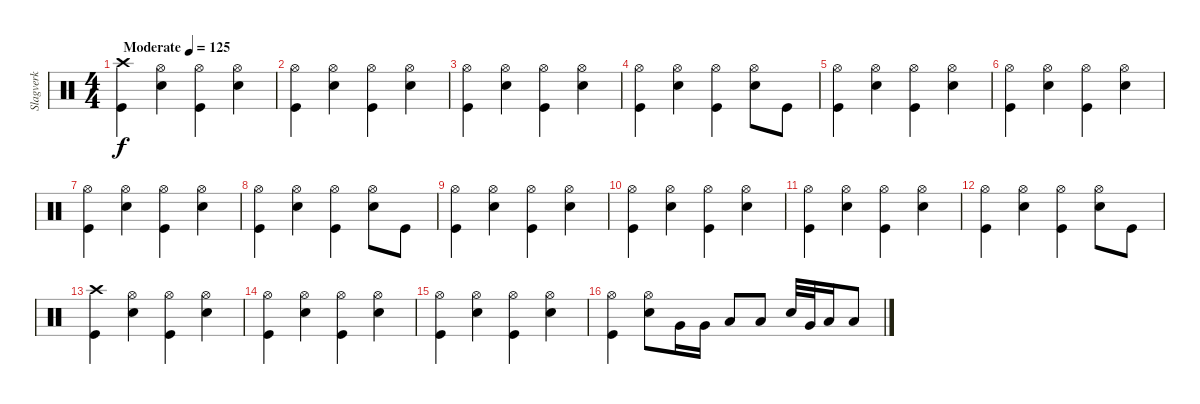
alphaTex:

\track ("Slagverk" "Slagverk") {instrument percussion}
\staff {score}
\articulation defaults
\ts (4 4)
\tempo (125 "Moderate")
\clef neutral
\ks c
("Crash high (hit)" "Kick (hit)").4{dy f} ("Hi-Hat (open)" "Snare (hit) 2").4 ("Hi-Hat (open)" "Kick (hit)").4 ("Hi-Hat (open)" "Snare (hit) 2").4 |
("Hi-Hat (open)" "Kick (hit)").4 ("Hi-Hat (open)" "Snare (hit) 2").4 ("Hi-Hat (open)" "Kick (hit)").4 ("Hi-Hat (open)" "Snare (hit) 2").4 |
("Hi-Hat (open)" "Kick (hit)").4 ("Hi-Hat (open)" "Snare (hit) 2").4 ("Hi-Hat (open)" "Kick (hit)").4 ("Hi-Hat (open)" "Snare (hit) 2").4 |
("Hi-Hat (open)" "Kick (hit)").4 ("Hi-Hat (open)" "Snare (hit) 2").4 ("Hi-Hat (open)" "Kick (hit)").4 ("Hi-Hat (open)" "Snare (hit) 2").8 "Kick (hit)".8 |
("Hi-Hat (open)" "Kick (hit)").4 ("Hi-Hat (open)" "Snare (hit) 2").4 ("Hi-Hat (open)" "Kick (hit)").4 ("Hi-Hat (open)" "Snare (hit) 2").4 |
("Hi-Hat (open)" "Kick (hit)").4 ("Hi-Hat (open)" "Snare (hit) 2").4 ("Hi-Hat (open)" "Kick (hit)").4 ("Hi-Hat (open)" "Snare (hit) 2").4 |
("Hi-Hat (open)" "Kick (hit)").4 ("Hi-Hat (open)" "Snare (hit) 2").4 ("Hi-Hat (open)" "Kick (hit)").4 ("Hi-Hat (open)" "Snare (hit) 2").4 |
("Hi-Hat (open)" "Kick (hit)").4 ("Hi-Hat (open)" "Snare (hit) 2").4 ("Hi-Hat (open)" "Kick (hit)").4 ("Hi-Hat (open)" "Snare (hit) 2").8 "Kick (hit)".8 |
("Hi-Hat (open)" "Kick (hit)").4 ("Hi-Hat (open)" "Snare (hit) 2").4 ("Hi-Hat (open)" "Kick (hit)").4 ("Hi-Hat (open)" "Snare (hit) 2").4 |
("Hi-Hat (open)" "Kick (hit)").4 ("Hi-Hat (open)" "Snare (hit) 2").4 ("Hi-Hat (open)" "Kick (hit)").4 ("Hi-Hat (open)" "Snare (hit) 2").4 |
("Hi-Hat (open)" "Kick (hit)").4 ("Hi-Hat (open)" "Snare (hit) 2").4 ("Hi-Hat (open)" "Kick (hit)").4 ("Hi-Hat (open)" "Snare (hit) 2").4 |
("Hi-Hat (open)" "Kick (hit)").4 ("Hi-Hat (open)" "Snare (hit) 2").4 ("Hi-Hat (open)" "Kick (hit)").4 ("Hi-Hat (open)" "Snare (hit) 2").8 "Kick (hit)".8 |
("Crash high (hit)" "Kick (hit)").4 ("Hi-Hat (open)" "Snare (hit) 2").4 ("Hi-Hat (open)" "Kick (hit)").4 ("Hi-Hat (open)" "Snare (hit) 2").4 |
("Hi-Hat (open)" "Kick (hit)").4 ("Hi-Hat (open)" "Snare (hit) 2").4 ("Hi-Hat (open)" "Kick (hit)").4 ("Hi-Hat (open)" "Snare (hit) 2").4 |
("Hi-Hat (open)" "Kick (hit)").4 ("Hi-Hat (open)" "Snare (hit) 2").4 ("Hi-Hat (open)" "Kick (hit)").4 ("Hi-Hat (open)" "Snare (hit) 2").4 |
("Hi-Hat (open)" "Kick (hit)").4 ("Hi-Hat (open)" "Snare (hit) 2").8 "Very Low Tom (hit)".16 "Very Low Tom (hit)".16 "Low Floor Tom (hit)".8 "Low Floor Tom (hit)".8 "Snare (hit) 2".32 "Very Low Tom (hit)".32 "Low Floor Tom (hit)".16 "Low Floor Tom (hit)".8
